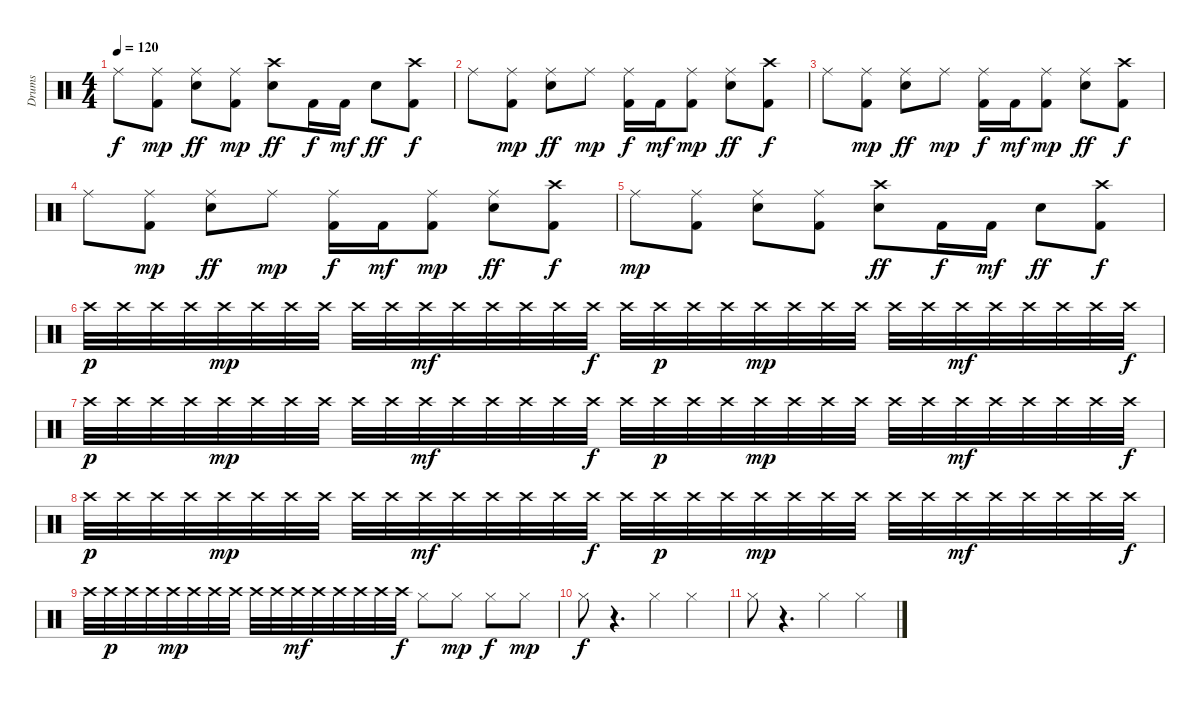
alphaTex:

\track ("Drums" "Drums") {instrument percussion}
\staff {score}
\articulation defaults
\ts (4 4)
\tempo 120
\clef neutral
\ks c "Ride (middle)".8{dy f}
("Ride (middle)" "Kick (hit) 2").8{dy mp} ("Snare (hit) 2" "Ride (middle)").8{dy ff} ("Ride (middle)" "Kick (hit) 2").8{dy mp} ("Snare (hit) 2" "Crash high (hit)").8{dy ff} "Kick (hit) 2".16{dy f} "Kick (hit) 2".16{dy mf} "Snare (hit) 2".8{dy ff} ("Crash high (hit)" "Kick (hit) 2").8{dy f} |
"Ride (middle)".8 ("Ride (middle)" "Kick (hit) 2").8{dy mp} ("Snare (hit) 2" "Ride (middle)").8{dy ff} "Ride (middle)".8{dy mp} ("Ride (middle)" "Kick (hit) 2").16{dy f} "Kick (hit) 2".16{dy mf} ("Ride (middle)" "Kick (hit) 2").8{dy mp} ("Snare (hit) 2" "Ride (middle)").8{dy ff} ("Crash high (hit)" "Kick (hit) 2").8{dy f} |
"Ride (middle)".8 ("Ride (middle)" "Kick (hit) 2").8{dy mp} ("Snare (hit) 2" "Ride (middle)").8{dy ff} "Ride (middle)".8{dy mp} ("Ride (middle)" "Kick (hit) 2").16{dy f} "Kick (hit) 2".16{dy mf} ("Ride (middle)" "Kick (hit) 2").8{dy mp} ("Snare (hit) 2" "Ride (middle)").8{dy ff} ("Crash high (hit)" "Kick (hit) 2").8{dy f} |
"Ride (middle)".8 ("Ride (middle)" "Kick (hit) 2").8{dy mp} ("Snare (hit) 2" "Ride (middle)").8{dy ff} "Ride (middle)".8{dy mp} ("Ride (middle)" "Kick (hit) 2").16{dy f} "Kick (hit) 2".16{dy mf} ("Ride (middle)" "Kick (hit) 2").8{dy mp} ("Snare (hit) 2" "Ride (middle)").8{dy ff} ("Crash high (hit)" "Kick (hit) 2").8{dy f} |
"Ride (middle)".8{dy mp} ("Ride (middle)" "Kick (hit) 2").8 ("Snare (hit) 2" "Ride (middle)").8 ("Ride (middle)" "Kick (hit) 2").8 ("Snare (hit) 2" "Crash high (hit)").8{dy ff} "Kick (hit) 2".16{dy f} "Kick (hit) 2".16{dy mf} "Snare (hit) 2".8{dy ff} ("Crash high (hit)" "Kick (hit) 2").8{dy f} |
"Crash high (hit)".32{dy p} "Crash high (hit)".32 "Crash high (hit)".32 "Crash high (hit)".32 "Crash high (hit)".32{dy mp} "Crash high (hit)".32 "Crash high (hit)".32 "Crash high (hit)".32 "Crash high (hit)".32 "Crash high (hit)".32 "Crash high (hit)".32{dy mf} "Crash high (hit)".32 "Crash high (hit)".32 "Crash high (hit)".32 "Crash high (hit)".32 "Crash high (hit)".32{dy f} "Crash high (hit)".32 "Crash high (hit)".32{dy p} "Crash high (hit)".32 "Crash high (hit)".32 "Crash high (hit)".32{dy mp} "Crash high (hit)".32 "Crash high (hit)".32 "Crash high (hit)".32 "Crash high (hit)".32 "Crash high (hit)".32 "Crash high (hit)".32{dy mf} "Crash high (hit)".32 "Crash high (hit)".32 "Crash high (hit)".32 "Crash high (hit)".32 "Crash high (hit)".32{dy f} |
"Crash high (hit)".32{dy p} "Crash high (hit)".32 "Crash high (hit)".32 "Crash high (hit)".32 "Crash high (hit)".32{dy mp} "Crash high (hit)".32 "Crash high (hit)".32 "Crash high (hit)".32 "Crash high (hit)".32 "Crash high (hit)".32 "Crash high (hit)".32{dy mf} "Crash high (hit)".32 "Crash high (hit)".32 "Crash high (hit)".32 "Crash high (hit)".32 "Crash high (hit)".32{dy f} "Crash high (hit)".32 "Crash high (hit)".32{dy p} "Crash high (hit)".32 "Crash high (hit)".32 "Crash high (hit)".32{dy mp} "Crash high (hit)".32 "Crash high (hit)".32 "Crash high (hit)".32 "Crash high (hit)".32 "Crash high (hit)".32 "Crash high (hit)".32{dy mf} "Crash high (hit)".32 "Crash high (hit)".32 "Crash high (hit)".32 "Crash high (hit)".32 "Crash high (hit)".32{dy f} |
"Crash high (hit)".32{dy p} "Crash high (hit)".32 "Crash high (hit)".32 "Crash high (hit)".32 "Crash high (hit)".32{dy mp} "Crash high (hit)".32 "Crash high (hit)".32 "Crash high (hit)".32 "Crash high (hit)".32 "Crash high (hit)".32 "Crash high (hit)".32{dy mf} "Crash high (hit)".32 "Crash high (hit)".32 "Crash high (hit)".32 "Crash high (hit)".32 "Crash high (hit)".32{dy f} "Crash high (hit)".32 "Crash high (hit)".32{dy p} "Crash high (hit)".32 "Crash high (hit)".32 "Crash high (hit)".32{dy mp} "Crash high (hit)".32 "Crash high (hit)".32 "Crash high (hit)".32 "Crash high (hit)".32 "Crash high (hit)".32 "Crash high (hit)".32{dy mf} "Crash high (hit)".32 "Crash high (hit)".32 "Crash high (hit)".32 "Crash high (hit)".32 "Crash high (hit)".32{dy f} |
"Crash high (hit)".32 "Crash high (hit)".32{dy p} "Crash high (hit)".32 "Crash high (hit)".32 "Crash high (hit)".32{dy mp} "Crash high (hit)".32 "Crash high (hit)".32 "Crash high (hit)".32 "Crash high (hit)".32 "Crash high (hit)".32 "Crash high (hit)".32{dy mf} "Crash high (hit)".32 "Crash high (hit)".32 "Crash high (hit)".32 "Crash high (hit)".32 "Crash high (hit)".32{dy f} "Hi-Hat (closed)".8 "Hi-Hat (closed)".8{dy mp} "Hi-Hat (closed)".8{dy f} "Hi-Hat (closed)".8{dy mp} |
"Hi-Hat (closed)".8{dy f} r.4{d} "Hi-Hat (closed)".4 "Hi-Hat (closed)".4 |
"Hi-Hat (closed)".8 r.4{d} "Hi-Hat (closed)".4 "Hi-Hat (closed)".4
